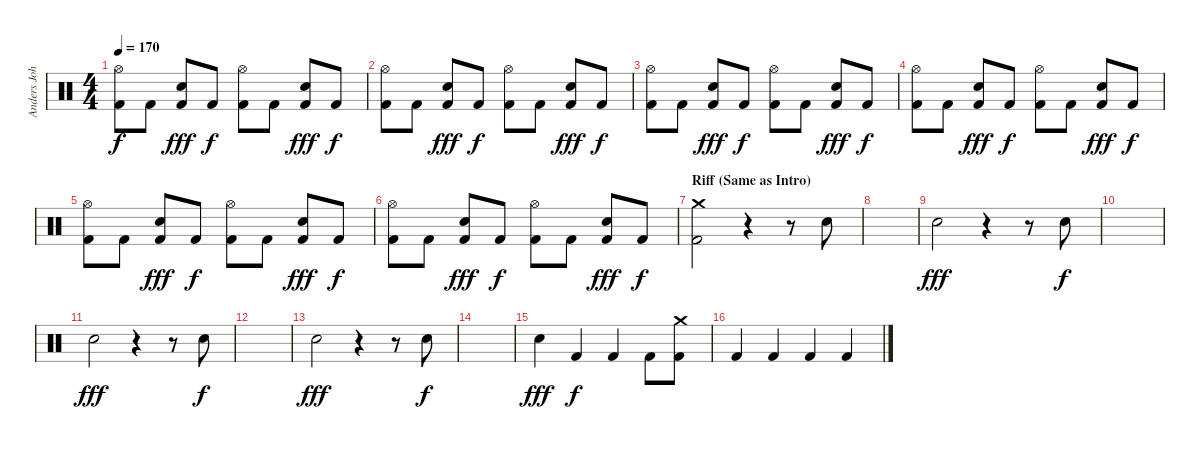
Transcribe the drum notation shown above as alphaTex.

\track ("Anders Johansson" "Anders Joh") {instrument percussion}
\staff {score}
\articulation defaults
\ts (4 4)
\tempo 170
\clef neutral
\ks c
("Hi-Hat (open)" "Kick (hit) 2").8{dy f} "Kick (hit) 2".8 ("Snare (hit) 2" "Kick (hit) 2").8{dy fff} "Kick (hit) 2".8{dy f} ("Hi-Hat (open)" "Kick (hit) 2").8 "Kick (hit) 2".8 ("Snare (hit) 2" "Kick (hit) 2").8{dy fff} "Kick (hit) 2".8{dy f} |
("Hi-Hat (open)" "Kick (hit) 2").8 "Kick (hit) 2".8 ("Snare (hit) 2" "Kick (hit) 2").8{dy fff} "Kick (hit) 2".8{dy f} ("Hi-Hat (open)" "Kick (hit) 2").8 "Kick (hit) 2".8 ("Snare (hit) 2" "Kick (hit) 2").8{dy fff} "Kick (hit) 2".8{dy f} |
("Hi-Hat (open)" "Kick (hit) 2").8 "Kick (hit) 2".8 ("Snare (hit) 2" "Kick (hit) 2").8{dy fff} "Kick (hit) 2".8{dy f} ("Hi-Hat (open)" "Kick (hit) 2").8 "Kick (hit) 2".8 ("Snare (hit) 2" "Kick (hit) 2").8{dy fff} "Kick (hit) 2".8{dy f} |
("Hi-Hat (open)" "Kick (hit) 2").8 "Kick (hit) 2".8 ("Snare (hit) 2" "Kick (hit) 2").8{dy fff} "Kick (hit) 2".8{dy f} ("Hi-Hat (open)" "Kick (hit) 2").8 "Kick (hit) 2".8 ("Snare (hit) 2" "Kick (hit) 2").8{dy fff} "Kick (hit) 2".8{dy f} |
("Hi-Hat (open)" "Kick (hit) 2").8 "Kick (hit) 2".8 ("Snare (hit) 2" "Kick (hit) 2").8{dy fff} "Kick (hit) 2".8{dy f} ("Hi-Hat (open)" "Kick (hit) 2").8 "Kick (hit) 2".8 ("Snare (hit) 2" "Kick (hit) 2").8{dy fff} "Kick (hit) 2".8{dy f} |
("Hi-Hat (open)" "Kick (hit) 2").8 "Kick (hit) 2".8 ("Snare (hit) 2" "Kick (hit) 2").8{dy fff} "Kick (hit) 2".8{dy f} ("Hi-Hat (open)" "Kick (hit) 2").8 "Kick (hit) 2".8 ("Snare (hit) 2" "Kick (hit) 2").8{dy fff} "Kick (hit) 2".8{dy f} |
\section ("" "Riff (Same as Intro)")
("Crash medium (hit)" "Kick (hit) 2").2 r.4 r.8 "Snare (hit) 2".8 |
|
"Snare (hit) 2".2{dy fff} r.4 r.8 "Snare (hit) 2".8{dy f} |
|
"Snare (hit) 2".2{dy fff} r.4 r.8 "Snare (hit) 2".8{dy f} |
|
"Snare (hit) 2".2{dy fff} r.4 r.8 "Snare (hit) 2".8{dy f} |
|
"Snare (hit) 2".4{dy fff} "Kick (hit) 2".4{dy f} "Kick (hit) 2".4 "Kick (hit) 2".8 ("Crash medium (hit)" "Kick (hit) 2").8 |
"Kick (hit) 2".4 "Kick (hit) 2".4 "Kick (hit) 2".4 "Kick (hit) 2".4
